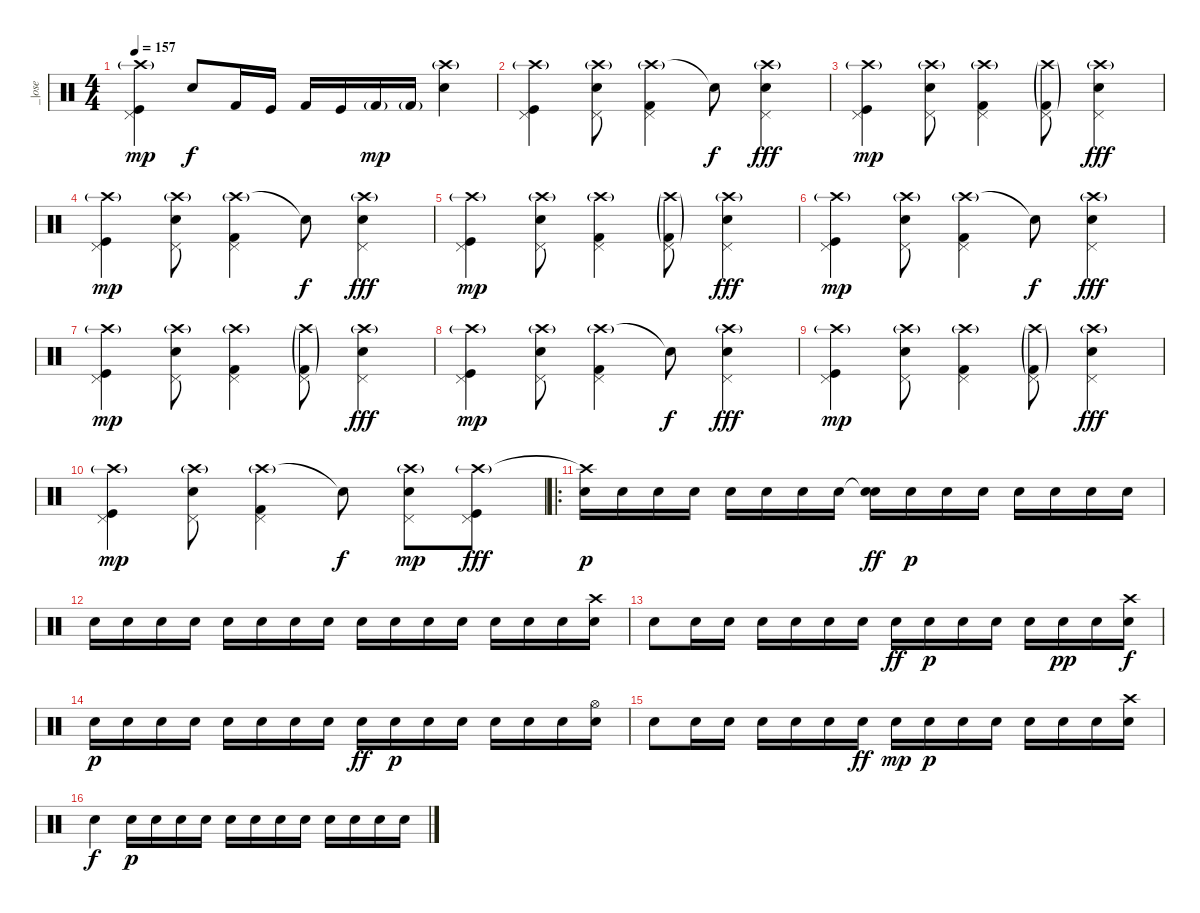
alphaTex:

\track ("_|ose" "_|ose") {instrument percussion}
\staff {score}
\articulation defaults
\ts (4 4)
\tempo 157
\clef neutral
\ks c
("Crash high (hit)"{g} "Pedal Hi-Hat (hit)" "Kick (hit)").4{dy mp} "Electric Snare (hit)".8{dy f} "Kick (hit) 2".16 "Kick (hit)".16 "Kick (hit) 2".16 "Kick (hit)".16 "Kick (hit) 2"{g}.16{dy mp} "Kick (hit) 2"{g}.16 ("Crash high (hit)"{g} "Electric Snare (hit)").4 |
("Crash high (hit)"{g} "Pedal Hi-Hat (hit)" "Kick (hit)").4 ("Crash high (hit)"{g} "Pedal Hi-Hat (hit)" "Electric Snare (hit)").8 ("Crash high (hit)"{g} "Pedal Hi-Hat (hit)" "Kick (hit) 2").4 "Snare (hit)"{t}.8{dy f} ("Crash high (hit)"{g} "Pedal Hi-Hat (hit)" "Electric Snare (hit)").4{dy fff} |
("Crash high (hit)"{g} "Pedal Hi-Hat (hit)" "Kick (hit)").4{dy mp} ("Crash high (hit)"{g} "Pedal Hi-Hat (hit)" "Electric Snare (hit)").8 ("Crash high (hit)"{g} "Pedal Hi-Hat (hit)" "Kick (hit) 2").4 ("Crash high (hit)"{g} "Pedal Hi-Hat (hit)" "Kick (hit) 2"{g}).8 ("Crash high (hit)"{g} "Pedal Hi-Hat (hit)" "Electric Snare (hit)").4{dy fff} |
("Crash high (hit)"{g} "Pedal Hi-Hat (hit)" "Kick (hit)").4{dy mp} ("Crash high (hit)"{g} "Pedal Hi-Hat (hit)" "Electric Snare (hit)").8 ("Crash high (hit)"{g} "Pedal Hi-Hat (hit)" "Kick (hit) 2").4 "Snare (hit)"{t}.8{dy f} ("Crash high (hit)"{g} "Pedal Hi-Hat (hit)" "Electric Snare (hit)").4{dy fff} |
("Crash high (hit)"{g} "Pedal Hi-Hat (hit)" "Kick (hit)").4{dy mp} ("Crash high (hit)"{g} "Pedal Hi-Hat (hit)" "Electric Snare (hit)").8 ("Crash high (hit)"{g} "Pedal Hi-Hat (hit)" "Kick (hit) 2").4 ("Crash high (hit)"{g} "Pedal Hi-Hat (hit)" "Kick (hit) 2"{g}).8 ("Crash high (hit)"{g} "Pedal Hi-Hat (hit)" "Electric Snare (hit)").4{dy fff} |
("Crash high (hit)"{g} "Pedal Hi-Hat (hit)" "Kick (hit)").4{dy mp} ("Crash high (hit)"{g} "Pedal Hi-Hat (hit)" "Electric Snare (hit)").8 ("Crash high (hit)"{g} "Pedal Hi-Hat (hit)" "Kick (hit) 2").4 "Snare (hit)"{t}.8{dy f} ("Crash high (hit)"{g} "Pedal Hi-Hat (hit)" "Electric Snare (hit)").4{dy fff} |
("Crash high (hit)"{g} "Pedal Hi-Hat (hit)" "Kick (hit)").4{dy mp} ("Crash high (hit)"{g} "Pedal Hi-Hat (hit)" "Electric Snare (hit)").8 ("Crash high (hit)"{g} "Pedal Hi-Hat (hit)" "Kick (hit) 2").4 ("Crash high (hit)"{g} "Pedal Hi-Hat (hit)" "Kick (hit) 2"{g}).8 ("Crash high (hit)"{g} "Pedal Hi-Hat (hit)" "Electric Snare (hit)").4{dy fff} |
("Crash high (hit)"{g} "Pedal Hi-Hat (hit)" "Kick (hit)").4{dy mp} ("Crash high (hit)"{g} "Pedal Hi-Hat (hit)" "Electric Snare (hit)").8 ("Crash high (hit)"{g} "Pedal Hi-Hat (hit)" "Kick (hit) 2").4 "Snare (hit)"{t}.8{dy f} ("Crash high (hit)"{g} "Pedal Hi-Hat (hit)" "Electric Snare (hit)").4{dy fff} |
("Crash high (hit)"{g} "Pedal Hi-Hat (hit)" "Kick (hit)").4{dy mp} ("Crash high (hit)"{g} "Pedal Hi-Hat (hit)" "Electric Snare (hit)").8 ("Crash high (hit)"{g} "Pedal Hi-Hat (hit)" "Kick (hit) 2").4 ("Crash high (hit)"{g} "Pedal Hi-Hat (hit)" "Kick (hit) 2"{g}).8 ("Crash high (hit)"{g} "Pedal Hi-Hat (hit)" "Electric Snare (hit)").4{dy fff} |
("Crash high (hit)"{g} "Pedal Hi-Hat (hit)" "Kick (hit)").4{dy mp} ("Crash high (hit)"{g} "Pedal Hi-Hat (hit)" "Electric Snare (hit)").8 ("Crash high (hit)"{g} "Pedal Hi-Hat (hit)" "Kick (hit) 2").4 "Snare (hit)"{t}.8{dy f} ("Crash high (hit)"{g} "Pedal Hi-Hat (hit)" "Electric Snare (hit)").8{dy mp} ("Crash high (hit)"{g} "Kick (hit)" "Pedal Hi-Hat (hit)").8{dy fff} |
\ro
("Crash high (hit)"{t} "Electric Snare (hit)").16{dy p} "Electric Snare (hit)".16 "Electric Snare (hit)".16 "Electric Snare (hit)".16 "Electric Snare (hit)".16 "Electric Snare (hit)".16 "Electric Snare (hit)".16 "Electric Snare (hit)".16 ("Snare (hit)"{t} "Electric Snare (hit)").16{dy ff} "Electric Snare (hit)".16{dy p} "Electric Snare (hit)".16 "Electric Snare (hit)".16 "Electric Snare (hit)".16 "Electric Snare (hit)".16 "Electric Snare (hit)".16 "Electric Snare (hit)".16 |
"Electric Snare (hit)".16 "Electric Snare (hit)".16 "Electric Snare (hit)".16 "Electric Snare (hit)".16 "Electric Snare (hit)".16 "Electric Snare (hit)".16 "Electric Snare (hit)".16 "Electric Snare (hit)".16 "Electric Snare (hit)".16 "Electric Snare (hit)".16 "Electric Snare (hit)".16 "Electric Snare (hit)".16 "Electric Snare (hit)".16 "Electric Snare (hit)".16 "Electric Snare (hit)".16 ("Crash high (hit)" "Electric Snare (hit)").16 |
"Electric Snare (hit)".8 "Electric Snare (hit)".16 "Electric Snare (hit)".16 "Electric Snare (hit)".16 "Electric Snare (hit)".16 "Electric Snare (hit)".16 "Electric Snare (hit)".16 "Electric Snare (hit)".16{dy ff} "Electric Snare (hit)".16{dy p} "Electric Snare (hit)".16 "Electric Snare (hit)".16 "Electric Snare (hit)".16 "Electric Snare (hit)".16{dy pp} "Electric Snare (hit)".16 ("Crash high (hit)" "Electric Snare (hit)").16{dy f} |
"Electric Snare (hit)".16{dy p} "Electric Snare (hit)".16 "Electric Snare (hit)".16 "Electric Snare (hit)".16 "Electric Snare (hit)".16 "Electric Snare (hit)".16 "Electric Snare (hit)".16 "Electric Snare (hit)".16 "Electric Snare (hit)".16{dy ff} "Electric Snare (hit)".16{dy p} "Electric Snare (hit)".16 "Electric Snare (hit)".16 "Electric Snare (hit)".16 "Electric Snare (hit)".16 "Electric Snare (hit)".16 ("Hi-Hat (open)" "Electric Snare (hit)").16 |
"Electric Snare (hit)".8 "Electric Snare (hit)".16 "Electric Snare (hit)".16 "Electric Snare (hit)".16 "Electric Snare (hit)".16 "Electric Snare (hit)".16 "Electric Snare (hit)".16{dy ff} "Electric Snare (hit)".16{dy mp} "Electric Snare (hit)".16{dy p} "Electric Snare (hit)".16 "Electric Snare (hit)".16 "Electric Snare (hit)".16 "Electric Snare (hit)".16 "Electric Snare (hit)".16 ("Crash high (hit)" "Electric Snare (hit)").16 |
"Electric Snare (hit)".4{dy f} "Electric Snare (hit)".16{dy p} "Electric Snare (hit)".16 "Electric Snare (hit)".16 "Electric Snare (hit)".16 "Electric Snare (hit)".16 "Electric Snare (hit)".16 "Electric Snare (hit)".16 "Electric Snare (hit)".16 "Electric Snare (hit)".16 "Electric Snare (hit)".16 "Electric Snare (hit)".16 "Electric Snare (hit)".16
